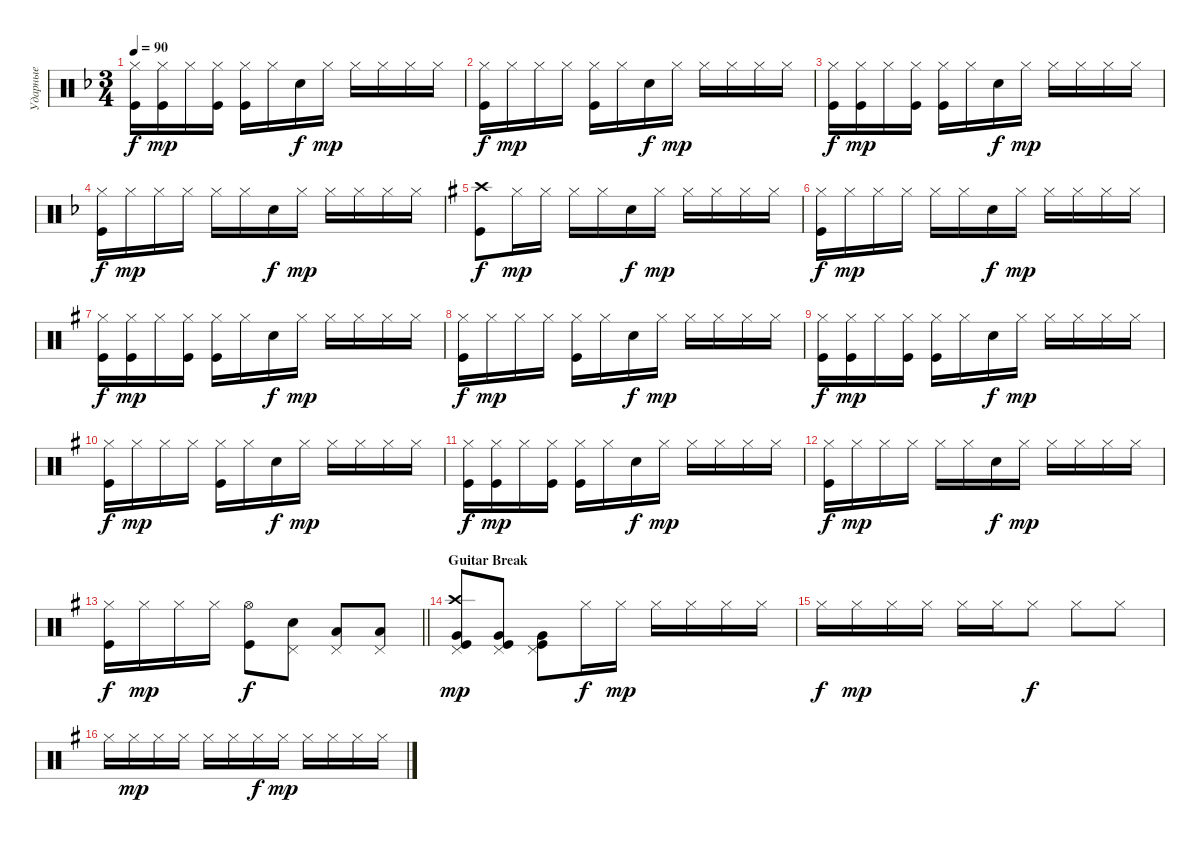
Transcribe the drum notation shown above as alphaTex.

\track ("Ударные" "Ударные") {instrument percussion}
\staff {score}
\articulation defaults
\ts (3 4)
\tempo 90
\clef neutral
\ks dminor
("Hi-Hat (closed)" "Kick (hit)").16{dy f} ("Hi-Hat (closed)" "Kick (hit)").16{dy mp} "Hi-Hat (closed)".16 ("Hi-Hat (closed)" "Kick (hit)").16 ("Hi-Hat (closed)" "Kick (hit)").16 "Hi-Hat (closed)".16 "Snare (hit) 2".16{dy f} "Hi-Hat (closed)".16{dy mp} "Hi-Hat (closed)".16 "Hi-Hat (closed)".16 "Hi-Hat (closed)".16 "Hi-Hat (closed)".16 |
("Hi-Hat (closed)" "Kick (hit)").16{dy f} "Hi-Hat (closed)".16{dy mp} "Hi-Hat (closed)".16 "Hi-Hat (closed)".16 ("Hi-Hat (closed)" "Kick (hit)").16 "Hi-Hat (closed)".16 "Snare (hit) 2".16{dy f} "Hi-Hat (closed)".16{dy mp} "Hi-Hat (closed)".16 "Hi-Hat (closed)".16 "Hi-Hat (closed)".16 "Hi-Hat (closed)".16 |
("Hi-Hat (closed)" "Kick (hit)").16{dy f} ("Hi-Hat (closed)" "Kick (hit)").16{dy mp} "Hi-Hat (closed)".16 ("Hi-Hat (closed)" "Kick (hit)").16 ("Hi-Hat (closed)" "Kick (hit)").16 "Hi-Hat (closed)".16 "Snare (hit) 2".16{dy f} "Hi-Hat (closed)".16{dy mp} "Hi-Hat (closed)".16 "Hi-Hat (closed)".16 "Hi-Hat (closed)".16 "Hi-Hat (closed)".16 |
("Hi-Hat (closed)" "Kick (hit)").16{dy f} "Hi-Hat (closed)".16{dy mp} "Hi-Hat (closed)".16 "Hi-Hat (closed)".16 "Hi-Hat (closed)".16 "Hi-Hat (closed)".16 "Snare (hit) 2".16{dy f} "Hi-Hat (closed)".16{dy mp} "Hi-Hat (closed)".16 "Hi-Hat (closed)".16 "Hi-Hat (closed)".16 "Hi-Hat (closed)".16 |
\ks eminor
("Crash high (hit)" "Kick (hit)").8{dy f} "Hi-Hat (closed)".16{dy mp} "Hi-Hat (closed)".16 "Hi-Hat (closed)".16 "Hi-Hat (closed)".16 "Snare (hit) 2".16{dy f} "Hi-Hat (closed)".16{dy mp} "Hi-Hat (closed)".16 "Hi-Hat (closed)".16 "Hi-Hat (closed)".16 "Hi-Hat (closed)".16 |
("Hi-Hat (closed)" "Kick (hit)").16{dy f} "Hi-Hat (closed)".16{dy mp} "Hi-Hat (closed)".16 "Hi-Hat (closed)".16 "Hi-Hat (closed)".16 "Hi-Hat (closed)".16 "Snare (hit) 2".16{dy f} "Hi-Hat (closed)".16{dy mp} "Hi-Hat (closed)".16 "Hi-Hat (closed)".16 "Hi-Hat (closed)".16 "Hi-Hat (closed)".16 |
("Hi-Hat (closed)" "Kick (hit)").16{dy f} ("Hi-Hat (closed)" "Kick (hit)").16{dy mp} "Hi-Hat (closed)".16 ("Hi-Hat (closed)" "Kick (hit)").16 ("Hi-Hat (closed)" "Kick (hit)").16 "Hi-Hat (closed)".16 "Snare (hit) 2".16{dy f} "Hi-Hat (closed)".16{dy mp} "Hi-Hat (closed)".16 "Hi-Hat (closed)".16 "Hi-Hat (closed)".16 "Hi-Hat (closed)".16 |
("Hi-Hat (closed)" "Kick (hit)").16{dy f} "Hi-Hat (closed)".16{dy mp} "Hi-Hat (closed)".16 "Hi-Hat (closed)".16 ("Hi-Hat (closed)" "Kick (hit)").16 "Hi-Hat (closed)".16 "Snare (hit) 2".16{dy f} "Hi-Hat (closed)".16{dy mp} "Hi-Hat (closed)".16 "Hi-Hat (closed)".16 "Hi-Hat (closed)".16 "Hi-Hat (closed)".16 |
("Hi-Hat (closed)" "Kick (hit)").16{dy f} ("Hi-Hat (closed)" "Kick (hit)").16{dy mp} "Hi-Hat (closed)".16 ("Hi-Hat (closed)" "Kick (hit)").16 ("Hi-Hat (closed)" "Kick (hit)").16 "Hi-Hat (closed)".16 "Snare (hit) 2".16{dy f} "Hi-Hat (closed)".16{dy mp} "Hi-Hat (closed)".16 "Hi-Hat (closed)".16 "Hi-Hat (closed)".16 "Hi-Hat (closed)".16 |
("Hi-Hat (closed)" "Kick (hit)").16{dy f} "Hi-Hat (closed)".16{dy mp} "Hi-Hat (closed)".16 "Hi-Hat (closed)".16 ("Hi-Hat (closed)" "Kick (hit)").16 "Hi-Hat (closed)".16 "Snare (hit) 2".16{dy f} "Hi-Hat (closed)".16{dy mp} "Hi-Hat (closed)".16 "Hi-Hat (closed)".16 "Hi-Hat (closed)".16 "Hi-Hat (closed)".16 |
("Hi-Hat (closed)" "Kick (hit)").16{dy f} ("Hi-Hat (closed)" "Kick (hit)").16{dy mp} "Hi-Hat (closed)".16 ("Hi-Hat (closed)" "Kick (hit)").16 ("Hi-Hat (closed)" "Kick (hit)").16 "Hi-Hat (closed)".16 "Snare (hit) 2".16{dy f} "Hi-Hat (closed)".16{dy mp} "Hi-Hat (closed)".16 "Hi-Hat (closed)".16 "Hi-Hat (closed)".16 "Hi-Hat (closed)".16 |
("Hi-Hat (closed)" "Kick (hit)").16{dy f} "Hi-Hat (closed)".16{dy mp} "Hi-Hat (closed)".16 "Hi-Hat (closed)".16 "Hi-Hat (closed)".16 "Hi-Hat (closed)".16 "Snare (hit) 2".16{dy f} "Hi-Hat (closed)".16{dy mp} "Hi-Hat (closed)".16 "Hi-Hat (closed)".16 "Hi-Hat (closed)".16 "Hi-Hat (closed)".16 |
\barLineRight lightlight
("Hi-Hat (closed)" "Kick (hit)").16{dy f} "Hi-Hat (closed)".16{dy mp} "Hi-Hat (closed)".16 "Hi-Hat (closed)".16 ("Hi-Hat (open)" "Kick (hit)").8{dy f} ("Snare (hit) 2" "Pedal Hi-Hat (hit)").8 ("Pedal Hi-Hat (hit)" "Low Tom (hit)").8{bd 60} ("Pedal Hi-Hat (hit)" "Low Tom (hit)").8{bd 60} |
\section ("" "Guitar Break")
("Crash high (hit)" "Kick (hit)" "Pedal Hi-Hat (hit)" "Very Low Tom (hit)").8{dy mp} ("Pedal Hi-Hat (hit)" "Kick (hit)" "Very Low Tom (hit)").8 ("Pedal Hi-Hat (hit)" "Kick (hit)" "Very Low Tom (hit)").8 "Hi-Hat (closed)".16{dy f} "Hi-Hat (closed)".16{dy mp} "Hi-Hat (closed)".16 "Hi-Hat (closed)".16 "Hi-Hat (closed)".16 "Hi-Hat (closed)".16 |
"Hi-Hat (closed)".16{dy f} "Hi-Hat (closed)".16{dy mp} "Hi-Hat (closed)".16 "Hi-Hat (closed)".16 "Hi-Hat (closed)".16 "Hi-Hat (closed)".16 "Hi-Hat (closed)".8{dy f} "Hi-Hat (closed)".8 "Hi-Hat (closed)".8 |
"Hi-Hat (closed)".16 "Hi-Hat (closed)".16{dy mp} "Hi-Hat (closed)".16 "Hi-Hat (closed)".16 "Hi-Hat (closed)".16 "Hi-Hat (closed)".16 "Hi-Hat (closed)".16{dy f} "Hi-Hat (closed)".16{dy mp} "Hi-Hat (closed)".16 "Hi-Hat (closed)".16 "Hi-Hat (closed)".16 "Hi-Hat (closed)".16
